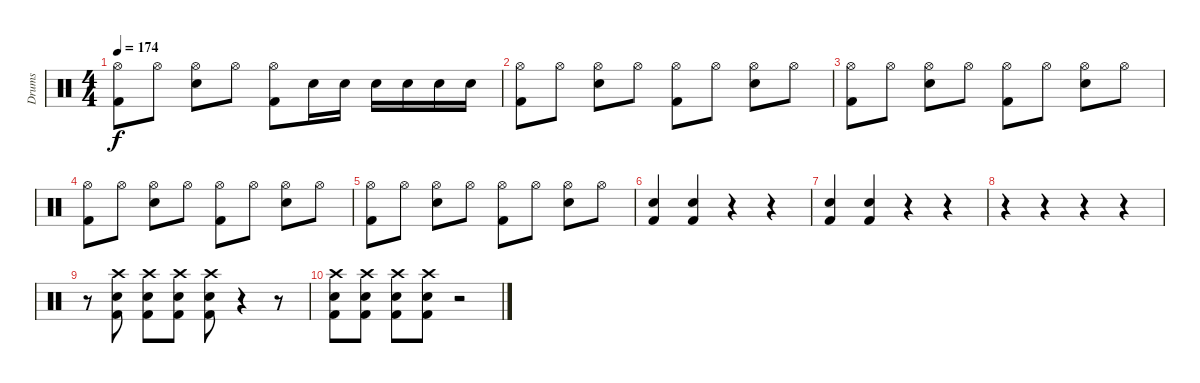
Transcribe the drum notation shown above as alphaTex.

\track ("Drums" "Drums") {instrument percussion}
\staff {score}
\articulation defaults
\ts (4 4)
\tempo 174
\clef neutral
\ks c
("Hi-Hat (open)" "Kick (hit) 2").8{dy f} "Hi-Hat (open)".8 ("Hi-Hat (open)" "Snare (hit) 2").8 "Hi-Hat (open)".8 ("Hi-Hat (open)" "Kick (hit) 2").8 "Snare (hit) 2".16 "Snare (hit) 2".16 "Snare (hit) 2".16 "Snare (hit) 2".16 "Snare (hit) 2".16 "Snare (hit) 2".16 |
("Hi-Hat (open)" "Kick (hit) 2").8 "Hi-Hat (open)".8 ("Hi-Hat (open)" "Snare (hit) 2").8 "Hi-Hat (open)".8 ("Hi-Hat (open)" "Kick (hit) 2").8 "Hi-Hat (open)".8 ("Hi-Hat (open)" "Snare (hit) 2").8 "Hi-Hat (open)".8 |
("Hi-Hat (open)" "Kick (hit) 2").8 "Hi-Hat (open)".8 ("Hi-Hat (open)" "Snare (hit) 2").8 "Hi-Hat (open)".8 ("Hi-Hat (open)" "Kick (hit) 2").8 "Hi-Hat (open)".8 ("Hi-Hat (open)" "Snare (hit) 2").8 "Hi-Hat (open)".8 |
("Hi-Hat (open)" "Kick (hit) 2").8 "Hi-Hat (open)".8 ("Hi-Hat (open)" "Snare (hit) 2").8 "Hi-Hat (open)".8 ("Hi-Hat (open)" "Kick (hit) 2").8 "Hi-Hat (open)".8 ("Hi-Hat (open)" "Snare (hit) 2").8 "Hi-Hat (open)".8 |
("Hi-Hat (open)" "Kick (hit) 2").8 "Hi-Hat (open)".8 ("Hi-Hat (open)" "Snare (hit) 2").8 "Hi-Hat (open)".8 ("Hi-Hat (open)" "Kick (hit) 2").8 "Hi-Hat (open)".8 ("Hi-Hat (open)" "Snare (hit) 2").8 "Hi-Hat (open)".8 |
("Snare (hit) 2" "Kick (hit) 2").4 ("Snare (hit) 2" "Kick (hit) 2").4 r.4 r.4 |
("Snare (hit) 2" "Kick (hit) 2").4 ("Snare (hit) 2" "Kick (hit) 2").4 r.4 r.4 |
r.4 r.4 r.4 r.4 |
r.8 ("Crash high (hit)" "Snare (hit) 2" "Kick (hit) 2").8 ("Crash high (hit)" "Snare (hit) 2" "Kick (hit) 2").8 ("Crash high (hit)" "Snare (hit) 2" "Kick (hit) 2").8 ("Crash high (hit)" "Snare (hit) 2" "Kick (hit) 2").8 r.4 r.8 |
("Crash high (hit)" "Snare (hit) 2" "Kick (hit) 2").8 ("Crash high (hit)" "Snare (hit) 2" "Kick (hit) 2").8 ("Crash high (hit)" "Snare (hit) 2" "Kick (hit) 2").8 ("Crash high (hit)" "Snare (hit) 2" "Kick (hit) 2").8 r.2
